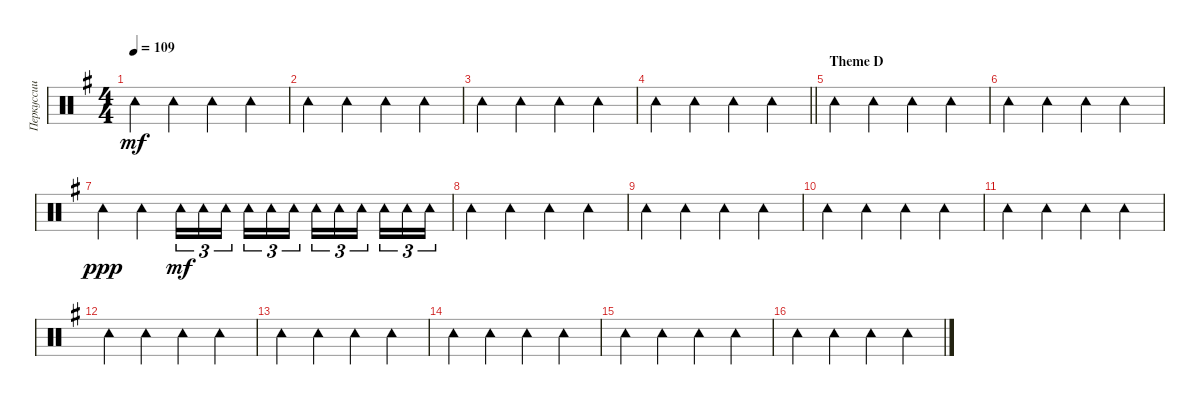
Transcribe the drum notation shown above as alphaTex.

\track ("Перкуссии" "Перкуссии") {instrument percussion}
\staff {score}
\articulation defaults
\ts (4 4)
\tempo 109
\clef neutral
\ks eminor "Tambourine (hit)".4{dy mf} "Tambourine (hit)".4 "Tambourine (hit)".4 "Tambourine (hit)".4
|
"Tambourine (hit)".4 "Tambourine (hit)".4 "Tambourine (hit)".4 "Tambourine (hit)".4 |
"Tambourine (hit)".4 "Tambourine (hit)".4 "Tambourine (hit)".4 "Tambourine (hit)".4 |
\barLineRight lightlight "Tambourine (hit)".4 "Tambourine (hit)".4 "Tambourine (hit)".4 "Tambourine (hit)".4
|
\section ("" "Theme D")
"Tambourine (hit)".4 "Tambourine (hit)".4 "Tambourine (hit)".4 "Tambourine (hit)".4 |
"Tambourine (hit)".4 "Tambourine (hit)".4 "Tambourine (hit)".4 "Tambourine (hit)".4 |
"Tambourine (hit)".4{dy ppp} "Tambourine (hit)".4 "Tambourine (hit)".16{tu (3 2) dy mf volume 0} "Tambourine (hit)".16{tu (3 2) volume 14} "Tambourine (hit)".16{tu (3 2) beam splitsecondary} "Tambourine (hit)".16{tu (3 2)} "Tambourine (hit)".16{tu (3 2)} "Tambourine (hit)".16{tu (3 2)} "Tambourine (hit)".16{tu (3 2)} "Tambourine (hit)".16{tu (3 2)} "Tambourine (hit)".16{tu (3 2) beam splitsecondary} "Tambourine (hit)".16{tu (3 2)} "Tambourine (hit)".16{tu (3 2)} "Tambourine (hit)".16{tu (3 2)} |
"Tambourine (hit)".4 "Tambourine (hit)".4 "Tambourine (hit)".4 "Tambourine (hit)".4 |
"Tambourine (hit)".4 "Tambourine (hit)".4 "Tambourine (hit)".4 "Tambourine (hit)".4 |
"Tambourine (hit)".4 "Tambourine (hit)".4 "Tambourine (hit)".4 "Tambourine (hit)".4 |
"Tambourine (hit)".4 "Tambourine (hit)".4 "Tambourine (hit)".4 "Tambourine (hit)".4 |
"Tambourine (hit)".4 "Tambourine (hit)".4 "Tambourine (hit)".4 "Tambourine (hit)".4 |
"Tambourine (hit)".4 "Tambourine (hit)".4 "Tambourine (hit)".4 "Tambourine (hit)".4 |
"Tambourine (hit)".4 "Tambourine (hit)".4 "Tambourine (hit)".4 "Tambourine (hit)".4 |
"Tambourine (hit)".4 "Tambourine (hit)".4 "Tambourine (hit)".4 "Tambourine (hit)".4 |
"Tambourine (hit)".4 "Tambourine (hit)".4 "Tambourine (hit)".4 "Tambourine (hit)".4
